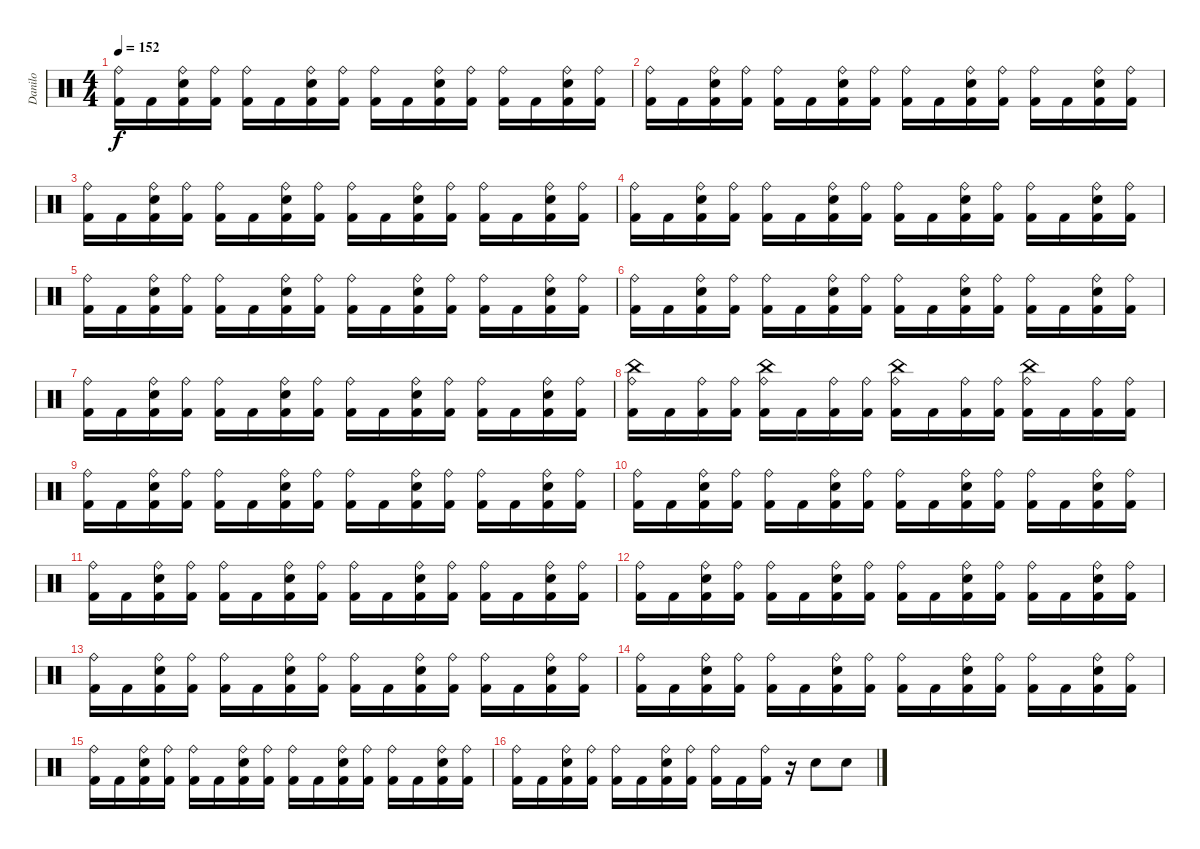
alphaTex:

\track ("Danilo" "Danilo") {instrument percussion}
\staff {score}
\articulation defaults
\ts (4 4)
\tempo 152
\clef neutral
\ks c
("Ride (bell)" "Kick (hit) 2").16{dy f} "Kick (hit) 2".16 ("Ride (bell)" "Snare (hit) 2" "Kick (hit) 2").16 ("Ride (bell)" "Kick (hit) 2").16 ("Ride (bell)" "Kick (hit) 2").16 "Kick (hit) 2".16 ("Ride (bell)" "Snare (hit) 2" "Kick (hit) 2").16 ("Ride (bell)" "Kick (hit) 2").16 ("Ride (bell)" "Kick (hit) 2").16 "Kick (hit) 2".16 ("Ride (bell)" "Snare (hit) 2" "Kick (hit) 2").16 ("Ride (bell)" "Kick (hit) 2").16 ("Ride (bell)" "Kick (hit) 2").16 "Kick (hit) 2".16 ("Ride (bell)" "Snare (hit) 2" "Kick (hit) 2").16 ("Ride (bell)" "Kick (hit) 2").16 |
("Ride (bell)" "Kick (hit) 2").16 "Kick (hit) 2".16 ("Ride (bell)" "Snare (hit) 2" "Kick (hit) 2").16 ("Ride (bell)" "Kick (hit) 2").16 ("Ride (bell)" "Kick (hit) 2").16 "Kick (hit) 2".16 ("Ride (bell)" "Snare (hit) 2" "Kick (hit) 2").16 ("Ride (bell)" "Kick (hit) 2").16 ("Ride (bell)" "Kick (hit) 2").16 "Kick (hit) 2".16 ("Ride (bell)" "Snare (hit) 2" "Kick (hit) 2").16 ("Ride (bell)" "Kick (hit) 2").16 ("Ride (bell)" "Kick (hit) 2").16 "Kick (hit) 2".16 ("Ride (bell)" "Snare (hit) 2" "Kick (hit) 2").16 ("Ride (bell)" "Kick (hit) 2").16 |
("Ride (bell)" "Kick (hit) 2").16 "Kick (hit) 2".16 ("Ride (bell)" "Snare (hit) 2" "Kick (hit) 2").16 ("Ride (bell)" "Kick (hit) 2").16 ("Ride (bell)" "Kick (hit) 2").16 "Kick (hit) 2".16 ("Ride (bell)" "Snare (hit) 2" "Kick (hit) 2").16 ("Ride (bell)" "Kick (hit) 2").16 ("Ride (bell)" "Kick (hit) 2").16 "Kick (hit) 2".16 ("Ride (bell)" "Snare (hit) 2" "Kick (hit) 2").16 ("Ride (bell)" "Kick (hit) 2").16 ("Ride (bell)" "Kick (hit) 2").16 "Kick (hit) 2".16 ("Ride (bell)" "Snare (hit) 2" "Kick (hit) 2").16 ("Ride (bell)" "Kick (hit) 2").16 |
("Ride (bell)" "Kick (hit) 2").16 "Kick (hit) 2".16 ("Ride (bell)" "Snare (hit) 2" "Kick (hit) 2").16 ("Ride (bell)" "Kick (hit) 2").16 ("Ride (bell)" "Kick (hit) 2").16 "Kick (hit) 2".16 ("Ride (bell)" "Snare (hit) 2" "Kick (hit) 2").16 ("Ride (bell)" "Kick (hit) 2").16 ("Ride (bell)" "Kick (hit) 2").16 "Kick (hit) 2".16 ("Ride (bell)" "Snare (hit) 2" "Kick (hit) 2").16 ("Ride (bell)" "Kick (hit) 2").16 ("Ride (bell)" "Kick (hit) 2").16 "Kick (hit) 2".16 ("Ride (bell)" "Snare (hit) 2" "Kick (hit) 2").16 ("Ride (bell)" "Kick (hit) 2").16 |
("Ride (bell)" "Kick (hit) 2").16 "Kick (hit) 2".16 ("Ride (bell)" "Snare (hit) 2" "Kick (hit) 2").16 ("Ride (bell)" "Kick (hit) 2").16 ("Ride (bell)" "Kick (hit) 2").16 "Kick (hit) 2".16 ("Ride (bell)" "Snare (hit) 2" "Kick (hit) 2").16 ("Ride (bell)" "Kick (hit) 2").16 ("Ride (bell)" "Kick (hit) 2").16 "Kick (hit) 2".16 ("Ride (bell)" "Snare (hit) 2" "Kick (hit) 2").16 ("Ride (bell)" "Kick (hit) 2").16 ("Ride (bell)" "Kick (hit) 2").16 "Kick (hit) 2".16 ("Ride (bell)" "Snare (hit) 2" "Kick (hit) 2").16 ("Ride (bell)" "Kick (hit) 2").16 |
("Ride (bell)" "Kick (hit) 2").16 "Kick (hit) 2".16 ("Ride (bell)" "Snare (hit) 2" "Kick (hit) 2").16 ("Ride (bell)" "Kick (hit) 2").16 ("Ride (bell)" "Kick (hit) 2").16 "Kick (hit) 2".16 ("Ride (bell)" "Snare (hit) 2" "Kick (hit) 2").16 ("Ride (bell)" "Kick (hit) 2").16 ("Ride (bell)" "Kick (hit) 2").16 "Kick (hit) 2".16 ("Ride (bell)" "Snare (hit) 2" "Kick (hit) 2").16 ("Ride (bell)" "Kick (hit) 2").16 ("Ride (bell)" "Kick (hit) 2").16 "Kick (hit) 2".16 ("Ride (bell)" "Snare (hit) 2" "Kick (hit) 2").16 ("Ride (bell)" "Kick (hit) 2").16 |
("Ride (bell)" "Kick (hit) 2").16 "Kick (hit) 2".16 ("Ride (bell)" "Snare (hit) 2" "Kick (hit) 2").16 ("Ride (bell)" "Kick (hit) 2").16 ("Ride (bell)" "Kick (hit) 2").16 "Kick (hit) 2".16 ("Ride (bell)" "Snare (hit) 2" "Kick (hit) 2").16 ("Ride (bell)" "Kick (hit) 2").16 ("Ride (bell)" "Kick (hit) 2").16 "Kick (hit) 2".16 ("Ride (bell)" "Snare (hit) 2" "Kick (hit) 2").16 ("Ride (bell)" "Kick (hit) 2").16 ("Ride (bell)" "Kick (hit) 2").16 "Kick (hit) 2".16 ("Ride (bell)" "Snare (hit) 2" "Kick (hit) 2").16 ("Ride (bell)" "Kick (hit) 2").16 |
("Ride (bell)" "China (hit)" "Kick (hit) 2").16 "Kick (hit) 2".16 ("Ride (bell)" "Kick (hit) 2").16 ("Ride (bell)" "Kick (hit) 2").16 ("Ride (bell)" "China (hit)" "Kick (hit) 2").16 "Kick (hit) 2".16 ("Ride (bell)" "Kick (hit) 2").16 ("Ride (bell)" "Kick (hit) 2").16 ("Ride (bell)" "China (hit)" "Kick (hit) 2").16 "Kick (hit) 2".16 ("Ride (bell)" "Kick (hit) 2").16 ("Ride (bell)" "Kick (hit) 2").16 ("Ride (bell)" "China (hit)" "Kick (hit) 2").16 "Kick (hit) 2".16 ("Ride (bell)" "Kick (hit) 2").16 ("Ride (bell)" "Kick (hit) 2").16 |
("Ride (bell)" "Kick (hit) 2").16 "Kick (hit) 2".16 ("Ride (bell)" "Snare (hit) 2" "Kick (hit) 2").16 ("Ride (bell)" "Kick (hit) 2").16 ("Ride (bell)" "Kick (hit) 2").16 "Kick (hit) 2".16 ("Ride (bell)" "Snare (hit) 2" "Kick (hit) 2").16 ("Ride (bell)" "Kick (hit) 2").16 ("Ride (bell)" "Kick (hit) 2").16 "Kick (hit) 2".16 ("Ride (bell)" "Snare (hit) 2" "Kick (hit) 2").16 ("Ride (bell)" "Kick (hit) 2").16 ("Ride (bell)" "Kick (hit) 2").16 "Kick (hit) 2".16 ("Ride (bell)" "Snare (hit) 2" "Kick (hit) 2").16 ("Ride (bell)" "Kick (hit) 2").16 |
("Ride (bell)" "Kick (hit) 2").16 "Kick (hit) 2".16 ("Ride (bell)" "Snare (hit) 2" "Kick (hit) 2").16 ("Ride (bell)" "Kick (hit) 2").16 ("Ride (bell)" "Kick (hit) 2").16 "Kick (hit) 2".16 ("Ride (bell)" "Snare (hit) 2" "Kick (hit) 2").16 ("Ride (bell)" "Kick (hit) 2").16 ("Ride (bell)" "Kick (hit) 2").16 "Kick (hit) 2".16 ("Ride (bell)" "Snare (hit) 2" "Kick (hit) 2").16 ("Ride (bell)" "Kick (hit) 2").16 ("Ride (bell)" "Kick (hit) 2").16 "Kick (hit) 2".16 ("Ride (bell)" "Snare (hit) 2" "Kick (hit) 2").16 ("Ride (bell)" "Kick (hit) 2").16 |
("Ride (bell)" "Kick (hit) 2").16 "Kick (hit) 2".16 ("Ride (bell)" "Snare (hit) 2" "Kick (hit) 2").16 ("Ride (bell)" "Kick (hit) 2").16 ("Ride (bell)" "Kick (hit) 2").16 "Kick (hit) 2".16 ("Ride (bell)" "Snare (hit) 2" "Kick (hit) 2").16 ("Ride (bell)" "Kick (hit) 2").16 ("Ride (bell)" "Kick (hit) 2").16 "Kick (hit) 2".16 ("Ride (bell)" "Snare (hit) 2" "Kick (hit) 2").16 ("Ride (bell)" "Kick (hit) 2").16 ("Ride (bell)" "Kick (hit) 2").16 "Kick (hit) 2".16 ("Ride (bell)" "Snare (hit) 2" "Kick (hit) 2").16 ("Ride (bell)" "Kick (hit) 2").16 |
("Ride (bell)" "Kick (hit) 2").16 "Kick (hit) 2".16 ("Ride (bell)" "Snare (hit) 2" "Kick (hit) 2").16 ("Ride (bell)" "Kick (hit) 2").16 ("Ride (bell)" "Kick (hit) 2").16 "Kick (hit) 2".16 ("Ride (bell)" "Snare (hit) 2" "Kick (hit) 2").16 ("Ride (bell)" "Kick (hit) 2").16 ("Ride (bell)" "Kick (hit) 2").16 "Kick (hit) 2".16 ("Ride (bell)" "Snare (hit) 2" "Kick (hit) 2").16 ("Ride (bell)" "Kick (hit) 2").16 ("Ride (bell)" "Kick (hit) 2").16 "Kick (hit) 2".16 ("Ride (bell)" "Snare (hit) 2" "Kick (hit) 2").16 ("Ride (bell)" "Kick (hit) 2").16 |
("Ride (bell)" "Kick (hit) 2").16 "Kick (hit) 2".16 ("Ride (bell)" "Snare (hit) 2" "Kick (hit) 2").16 ("Ride (bell)" "Kick (hit) 2").16 ("Ride (bell)" "Kick (hit) 2").16 "Kick (hit) 2".16 ("Ride (bell)" "Snare (hit) 2" "Kick (hit) 2").16 ("Ride (bell)" "Kick (hit) 2").16 ("Ride (bell)" "Kick (hit) 2").16 "Kick (hit) 2".16 ("Ride (bell)" "Snare (hit) 2" "Kick (hit) 2").16 ("Ride (bell)" "Kick (hit) 2").16 ("Ride (bell)" "Kick (hit) 2").16 "Kick (hit) 2".16 ("Ride (bell)" "Snare (hit) 2" "Kick (hit) 2").16 ("Ride (bell)" "Kick (hit) 2").16 |
("Ride (bell)" "Kick (hit) 2").16 "Kick (hit) 2".16 ("Ride (bell)" "Snare (hit) 2" "Kick (hit) 2").16 ("Ride (bell)" "Kick (hit) 2").16 ("Ride (bell)" "Kick (hit) 2").16 "Kick (hit) 2".16 ("Ride (bell)" "Snare (hit) 2" "Kick (hit) 2").16 ("Ride (bell)" "Kick (hit) 2").16 ("Ride (bell)" "Kick (hit) 2").16 "Kick (hit) 2".16 ("Ride (bell)" "Snare (hit) 2" "Kick (hit) 2").16 ("Ride (bell)" "Kick (hit) 2").16 ("Ride (bell)" "Kick (hit) 2").16 "Kick (hit) 2".16 ("Ride (bell)" "Snare (hit) 2" "Kick (hit) 2").16 ("Ride (bell)" "Kick (hit) 2").16 |
("Ride (bell)" "Kick (hit) 2").16 "Kick (hit) 2".16 ("Ride (bell)" "Snare (hit) 2" "Kick (hit) 2").16 ("Ride (bell)" "Kick (hit) 2").16 ("Ride (bell)" "Kick (hit) 2").16 "Kick (hit) 2".16 ("Ride (bell)" "Snare (hit) 2" "Kick (hit) 2").16 ("Ride (bell)" "Kick (hit) 2").16 ("Ride (bell)" "Kick (hit) 2").16 "Kick (hit) 2".16 ("Ride (bell)" "Snare (hit) 2" "Kick (hit) 2").16 ("Ride (bell)" "Kick (hit) 2").16 ("Ride (bell)" "Kick (hit) 2").16 "Kick (hit) 2".16 ("Ride (bell)" "Snare (hit) 2" "Kick (hit) 2").16 ("Ride (bell)" "Kick (hit) 2").16 |
("Ride (bell)" "Kick (hit) 2").16 "Kick (hit) 2".16 ("Ride (bell)" "Snare (hit) 2" "Kick (hit) 2").16 ("Ride (bell)" "Kick (hit) 2").16 ("Ride (bell)" "Kick (hit) 2").16 "Kick (hit) 2".16 ("Ride (bell)" "Snare (hit) 2" "Kick (hit) 2").16 ("Ride (bell)" "Kick (hit) 2").16 ("Ride (bell)" "Kick (hit) 2").16 "Kick (hit) 2".16 ("Ride (bell)" "Kick (hit) 2").16 r.16 "Snare (hit) 2".8 "Snare (hit) 2".8
